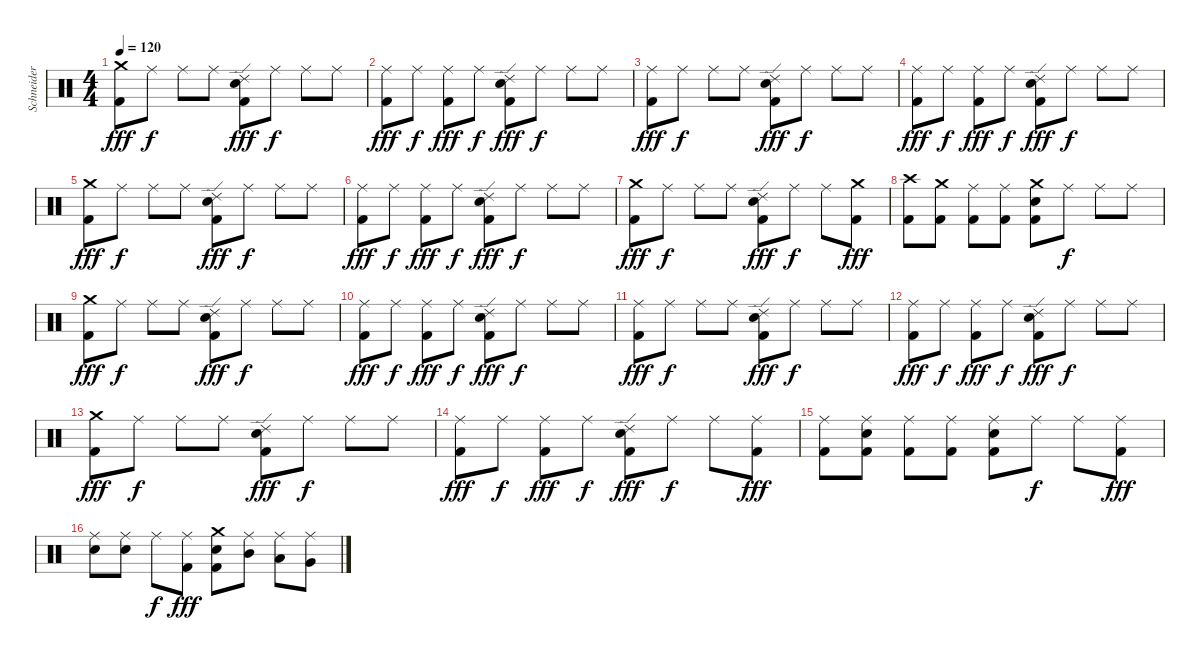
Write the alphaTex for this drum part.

\track ("Schneider" "Schneider") {instrument percussion}
\staff {score}
\articulation defaults
\ts (4 4)
\tempo 120
\clef neutral
\ks c
("Crash medium (hit)" "Kick (hit) 2").8{dy fff} "Ride (middle)".8{dy f} "Ride (middle)".8 "Ride (middle)".8 ("Ride (edge) 2" "Kick (hit) 2" "Snare (hit) 2").8{dy fff} "Ride (middle)".8{dy f} "Ride (middle)".8 "Ride (middle)".8 |
("Ride (middle)" "Kick (hit) 2").8{dy fff} "Ride (middle)".8{dy f} ("Ride (middle)" "Kick (hit) 2").8{dy fff} "Ride (middle)".8{dy f} ("Ride (edge) 2" "Kick (hit) 2" "Snare (hit) 2").8{dy fff} "Ride (middle)".8{dy f} "Ride (middle)".8 "Ride (middle)".8 |
("Ride (middle)" "Kick (hit) 2").8{dy fff} "Ride (middle)".8{dy f} "Ride (middle)".8 "Ride (middle)".8 ("Ride (edge) 2" "Kick (hit) 2" "Snare (hit) 2").8{dy fff} "Ride (middle)".8{dy f} "Ride (middle)".8 "Ride (middle)".8 |
("Ride (middle)" "Kick (hit) 2").8{dy fff} "Ride (middle)".8{dy f} ("Ride (middle)" "Kick (hit) 2").8{dy fff} "Ride (middle)".8{dy f} ("Ride (edge) 2" "Kick (hit) 2" "Snare (hit) 2").8{dy fff} "Ride (middle)".8{dy f} "Ride (middle)".8 "Ride (middle)".8 |
("Crash medium (hit)" "Kick (hit) 2").8{dy fff} "Ride (middle)".8{dy f} "Ride (middle)".8 "Ride (middle)".8 ("Ride (edge) 2" "Kick (hit) 2" "Snare (hit) 2").8{dy fff} "Ride (middle)".8{dy f} "Ride (middle)".8 "Ride (middle)".8 |
("Ride (middle)" "Kick (hit) 2").8{dy fff} "Ride (middle)".8{dy f} ("Ride (middle)" "Kick (hit) 2").8{dy fff} "Ride (middle)".8{dy f} ("Ride (edge) 2" "Kick (hit) 2" "Snare (hit) 2").8{dy fff} "Ride (middle)".8{dy f} "Ride (middle)".8 "Ride (middle)".8 |
("Crash medium (hit)" "Kick (hit) 2").8{dy fff} "Ride (middle)".8{dy f} "Ride (middle)".8 "Ride (middle)".8 ("Ride (edge) 2" "Kick (hit) 2" "Snare (hit) 2").8{dy fff} "Ride (middle)".8{dy f} "Ride (middle)".8 ("Crash medium (hit)" "Kick (hit) 2").8{dy fff} |
("Crash high (hit)" "Kick (hit) 2").8 ("Crash medium (hit)" "Kick (hit) 2").8 ("Ride (middle)" "Kick (hit) 2").8 ("Ride (middle)" "Kick (hit) 2").8 ("Crash medium (hit)" "Kick (hit) 2" "Snare (hit) 2").8 "Ride (middle)".8{dy f} "Ride (middle)".8 "Ride (middle)".8 |
("Crash medium (hit)" "Kick (hit) 2").8{dy fff} "Ride (middle)".8{dy f} "Ride (middle)".8 "Ride (middle)".8 ("Ride (edge) 2" "Kick (hit) 2" "Snare (hit) 2").8{dy fff} "Ride (middle)".8{dy f} "Ride (middle)".8 "Ride (middle)".8 |
("Ride (middle)" "Kick (hit) 2").8{dy fff} "Ride (middle)".8{dy f} ("Ride (middle)" "Kick (hit) 2").8{dy fff} "Ride (middle)".8{dy f} ("Ride (edge) 2" "Kick (hit) 2" "Snare (hit) 2").8{dy fff} "Ride (middle)".8{dy f} "Ride (middle)".8 "Ride (middle)".8 |
("Ride (middle)" "Kick (hit) 2").8{dy fff} "Ride (middle)".8{dy f} "Ride (middle)".8 "Ride (middle)".8 ("Ride (edge) 2" "Kick (hit) 2" "Snare (hit) 2").8{dy fff} "Ride (middle)".8{dy f} "Ride (middle)".8 "Ride (middle)".8 |
("Ride (middle)" "Kick (hit) 2").8{dy fff} "Ride (middle)".8{dy f} ("Ride (middle)" "Kick (hit) 2").8{dy fff} "Ride (middle)".8{dy f} ("Ride (edge) 2" "Kick (hit) 2" "Snare (hit) 2").8{dy fff} "Ride (middle)".8{dy f} "Ride (middle)".8 "Ride (middle)".8 |
("Crash medium (hit)" "Kick (hit) 2").8{dy fff} "Ride (middle)".8{dy f} "Ride (middle)".8 "Ride (middle)".8 ("Ride (edge) 2" "Kick (hit) 2" "Snare (hit) 2").8{dy fff} "Ride (middle)".8{dy f} "Ride (middle)".8 "Ride (middle)".8 |
("Ride (middle)" "Kick (hit) 2").8{dy fff} "Ride (middle)".8{dy f} ("Ride (middle)" "Kick (hit) 2").8{dy fff} "Ride (middle)".8{dy f} ("Ride (edge) 2" "Kick (hit) 2" "Snare (hit) 2").8{dy fff} "Ride (middle)".8{dy f} "Ride (middle)".8 ("Ride (middle)" "Kick (hit) 2").8{dy fff} |
("Ride (middle)" "Kick (hit) 2").8 ("Ride (middle)" "Kick (hit) 2" "Snare (hit) 2").8 ("Ride (middle)" "Kick (hit) 2").8 ("Ride (middle)" "Kick (hit) 2").8 ("Ride (middle)" "Kick (hit) 2" "Snare (hit) 2").8 "Ride (middle)".8{dy f} "Ride (middle)".8 ("Ride (middle)" "Kick (hit) 2").8{dy fff} |
("Ride (middle)" "Snare (hit) 2").8 ("Ride (middle)" "Snare (hit) 2").8 "Ride (middle)".8{dy f} ("Ride (middle)" "Kick (hit) 2").8{dy fff} ("Crash medium (hit)" "Kick (hit) 2" "Snare (hit) 2").8 ("Ride (middle)" "Mid Tom (hit)").8 ("Ride (middle)" "Low Tom (hit)").8 ("Ride (middle)" "Very Low Tom (hit)").8
